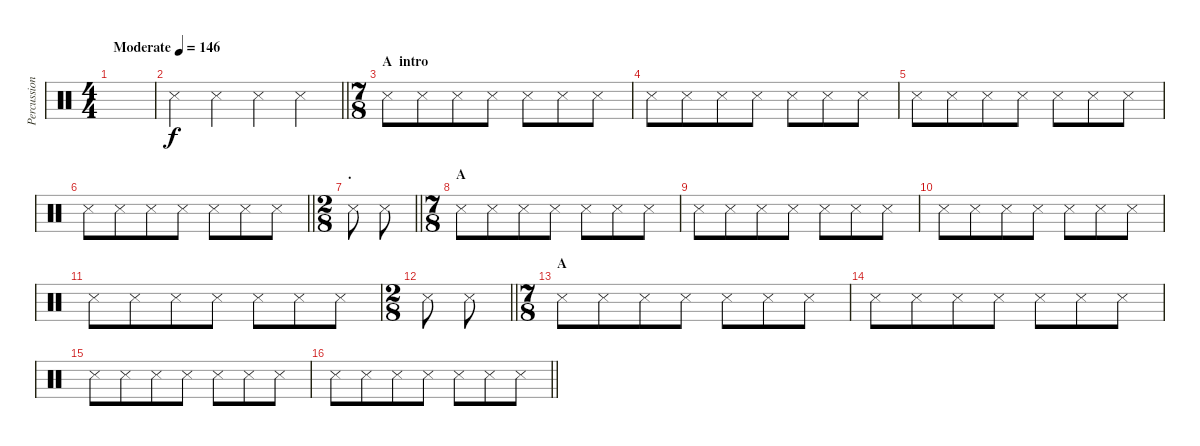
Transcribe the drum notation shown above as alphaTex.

\track ("Percussion" "Percussion") {instrument percussion}
\staff {score}
\articulation defaults
\ts (4 4)
\tempo (146 "Moderate")
\clef neutral
\ks c
|
\barLineRight lightlight "Metronome (hit)".4 "Metronome (hit)".4 "Metronome (hit)".4 "Metronome (hit)".4
|
\ts (7 8)
\section ("" "A  intro")
"Metronome (hit)".8 "Metronome (hit)".8 "Metronome (hit)".8 "Metronome (hit)".8 "Metronome (hit)".8 "Metronome (hit)".8 "Metronome (hit)".8 |
"Metronome (hit)".8 "Metronome (hit)".8 "Metronome (hit)".8 "Metronome (hit)".8 "Metronome (hit)".8 "Metronome (hit)".8 "Metronome (hit)".8 |
"Metronome (hit)".8 "Metronome (hit)".8 "Metronome (hit)".8 "Metronome (hit)".8 "Metronome (hit)".8 "Metronome (hit)".8 "Metronome (hit)".8 |
\barLineRight lightlight "Metronome (hit)".8 "Metronome (hit)".8 "Metronome (hit)".8 "Metronome (hit)".8 "Metronome (hit)".8 "Metronome (hit)".8 "Metronome (hit)".8
|
\ts (2 8)
\section ("" ".")
\barLineRight lightlight "Metronome (hit)".8 "Metronome (hit)".8
|
\ts (7 8)
\section ("" "A")
"Metronome (hit)".8 "Metronome (hit)".8 "Metronome (hit)".8 "Metronome (hit)".8 "Metronome (hit)".8 "Metronome (hit)".8 "Metronome (hit)".8 |
"Metronome (hit)".8 "Metronome (hit)".8 "Metronome (hit)".8 "Metronome (hit)".8 "Metronome (hit)".8 "Metronome (hit)".8 "Metronome (hit)".8 |
"Metronome (hit)".8 "Metronome (hit)".8 "Metronome (hit)".8 "Metronome (hit)".8 "Metronome (hit)".8 "Metronome (hit)".8 "Metronome (hit)".8 |
"Metronome (hit)".8 "Metronome (hit)".8 "Metronome (hit)".8 "Metronome (hit)".8 "Metronome (hit)".8 "Metronome (hit)".8 "Metronome (hit)".8 |
\ts (2 8)
\barLineRight lightlight "Metronome (hit)".8 "Metronome (hit)".8
|
\ts (7 8)
\section ("" "A")
"Metronome (hit)".8 "Metronome (hit)".8 "Metronome (hit)".8 "Metronome (hit)".8 "Metronome (hit)".8 "Metronome (hit)".8 "Metronome (hit)".8 |
"Metronome (hit)".8 "Metronome (hit)".8 "Metronome (hit)".8 "Metronome (hit)".8 "Metronome (hit)".8 "Metronome (hit)".8 "Metronome (hit)".8 |
"Metronome (hit)".8 "Metronome (hit)".8 "Metronome (hit)".8 "Metronome (hit)".8 "Metronome (hit)".8 "Metronome (hit)".8 "Metronome (hit)".8 |
\barLineRight lightlight "Metronome (hit)".8 "Metronome (hit)".8 "Metronome (hit)".8 "Metronome (hit)".8 "Metronome (hit)".8 "Metronome (hit)".8 "Metronome (hit)".8
